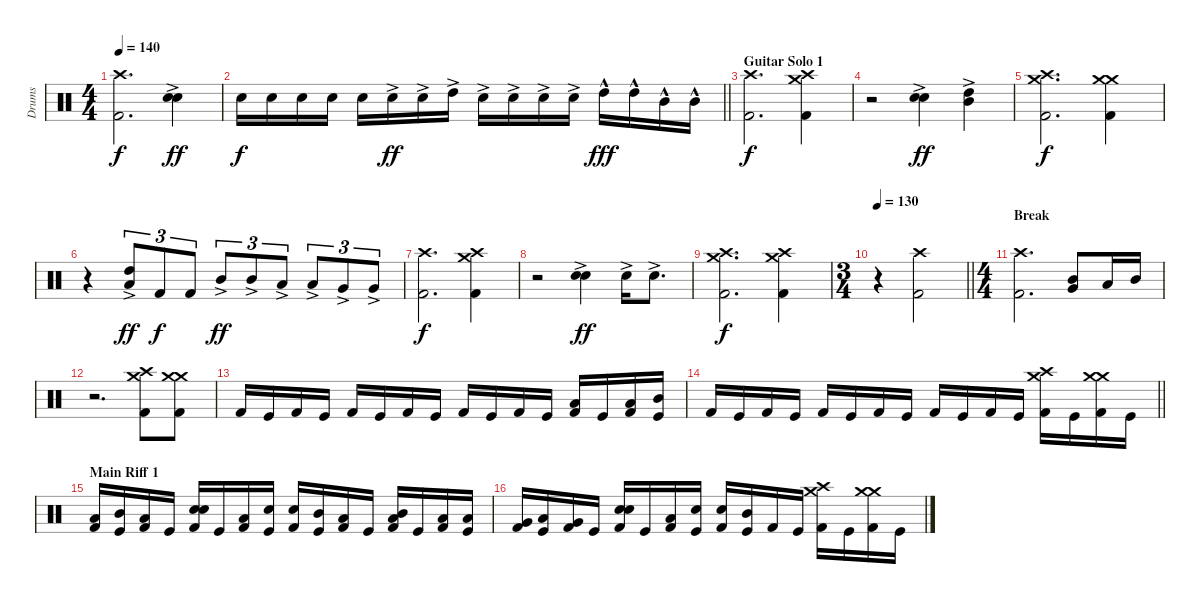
\track ("Drums" "Drums") {instrument percussion}
\staff {score}
\articulation defaults
\ts (4 4)
\tempo 140
\clef neutral
\ks c
("Crash high (hit)" "Kick (hit) 2").2{d dy f} ("Snare (hit) 2"{ac} "Snare (hit) 2"{ac}).4{dy ff} |
\barLineRight lightlight "Snare (hit) 2".16{dy f} "Snare (hit) 2".16 "Snare (hit) 2".16 "Snare (hit) 2".16 "Snare (hit) 2".16 "Snare (hit) 2"{ac}.16{dy ff} "Snare (hit) 2"{ac}.16 "High Tom (hit)"{ac}.16 "Snare (hit) 2"{ac}.16 "Snare (hit) 2"{ac}.16 "Snare (hit) 2"{ac}.16 "Snare (hit) 2"{ac}.16 "High Tom (hit)"{hac}.16{dy fff} "High Tom (hit)"{hac}.16 "Mid Tom (hit)"{hac}.16 "Mid Tom (hit)"{hac}.16
|
\section ("" "Guitar Solo 1")
("Crash high (hit)" "Kick (hit) 2").2{d dy f} ("Crash medium (hit)" "Crash high (hit)" "Kick (hit) 2").4 |
r.2 ("Snare (hit) 2"{ac} "Snare (hit) 2"{ac}).4{dy ff} ("High Tom (hit)"{ac} "Mid Tom (hit)"{ac}).4 |
("Crash medium (hit)" "Crash high (hit)" "Kick (hit) 2").2{d dy f} ("Crash medium (hit)" "Crash medium (hit)" "Kick (hit) 2").4 |
r.4 ("High Tom (hit)"{ac} "Low Tom (hit)"{ac}).8{tu (3 2) dy ff} "Kick (hit) 2".8{tu (3 2) dy f} "Kick (hit) 2".8{tu (3 2)} "Mid Tom (hit)"{ac}.8{tu (3 2) dy ff} "Mid Tom (hit)"{ac}.8{tu (3 2)} "Low Tom (hit)"{ac}.8{tu (3 2)} "Low Tom (hit)"{ac}.8{tu (3 2)} "Very Low Tom (hit)"{ac}.8{tu (3 2)} "Very Low Tom (hit)"{ac}.8{tu (3 2)} |
("Crash high (hit)" "Kick (hit) 2").2{d dy f} ("Crash medium (hit)" "Crash high (hit)" "Kick (hit) 2").4 |
r.2 ("Snare (hit) 2"{ac} "Snare (hit) 2"{ac}).4{dy ff} "Snare (hit) 2"{ac}.16 "Snare (hit) 2"{ac}.8{d} |
("Crash medium (hit)" "Crash high (hit)" "Kick (hit) 2").2{d dy f} ("Crash medium (hit)" "Crash high (hit)" "Kick (hit) 2").4 |
\ts (3 4)
\tempo 130
\barLineRight lightlight
r.4 ("Crash high (hit)" "Kick (hit) 2").2 |
\ts (4 4)
\section ("" "Break")
("Crash high (hit)" "Kick (hit) 2").2{d} ("Mid Tom (hit)" "Very Low Tom (hit)").8 "Low Tom (hit)".16 "Mid Tom (hit)".16 |
r.2{d} ("Crash medium (hit)" "Crash high (hit)" "Kick (hit) 2").8 ("Crash medium (hit)" "Crash medium (hit)" "Kick (hit) 2").8 |
"Kick (hit) 2".16 "Kick (hit)".16 "Kick (hit) 2".16 "Kick (hit)".16 "Kick (hit) 2".16 "Kick (hit)".16 "Kick (hit) 2".16 "Kick (hit)".16 "Kick (hit) 2".16 "Kick (hit)".16 "Kick (hit) 2".16 "Kick (hit)".16 ("Low Tom (hit)" "Kick (hit) 2").16 "Kick (hit)".16 ("Low Tom (hit)" "Kick (hit) 2").16 ("Mid Tom (hit)" "Kick (hit)").16 |
\barLineRight lightlight "Kick (hit) 2".16 "Kick (hit)".16 "Kick (hit) 2".16 "Kick (hit)".16 "Kick (hit) 2".16 "Kick (hit)".16 "Kick (hit) 2".16 "Kick (hit)".16 "Kick (hit) 2".16 "Kick (hit)".16 "Kick (hit) 2".16 "Kick (hit)".16
("Crash medium (hit)" "Crash high (hit)" "Kick (hit) 2").16 "Kick (hit)".16 ("Crash medium (hit)" "Crash medium (hit)" "Kick (hit) 2").16 "Kick (hit)".16 |
\section ("" "Main Riff 1")
("Low Tom (hit)" "Kick (hit) 2").16 ("Mid Tom (hit)" "Kick (hit)").16 ("Low Tom (hit)" "Kick (hit) 2").16 "Kick (hit)".16 ("Snare (hit) 2" "Snare (hit) 2" "Kick (hit) 2").16 "Kick (hit)".16 ("Low Tom (hit)" "Kick (hit) 2").16 ("Snare (hit) 2" "Kick (hit)").16 ("Snare (hit) 2" "Kick (hit) 2").16 ("Mid Tom (hit)" "Kick (hit)").16 ("Low Tom (hit)" "Kick (hit) 2").16 "Kick (hit)".16 ("Mid Tom (hit)" "Low Tom (hit)" "Kick (hit) 2").16 "Kick (hit)".16 ("Low Tom (hit)" "Kick (hit) 2").16 ("Low Tom (hit)" "Kick (hit)").16 |
("Very Low Tom (hit)" "Kick (hit) 2").16 ("Low Tom (hit)" "Kick (hit)").16 ("Very Low Tom (hit)" "Kick (hit) 2").16 "Kick (hit)".16 ("Snare (hit) 2" "Snare (hit) 2" "Kick (hit) 2").16 "Kick (hit)".16 ("Low Tom (hit)" "Kick (hit) 2").16 ("Snare (hit) 2" "Kick (hit)").16 ("Snare (hit) 2" "Kick (hit) 2").16 ("Mid Tom (hit)" "Kick (hit)").16 "Kick (hit) 2".16 "Kick (hit)".16 ("Crash medium (hit)" "Crash high (hit)" "Kick (hit) 2").16 "Kick (hit)".16 ("Crash medium (hit)" "Crash medium (hit)" "Kick (hit) 2").16 "Kick (hit)".16
